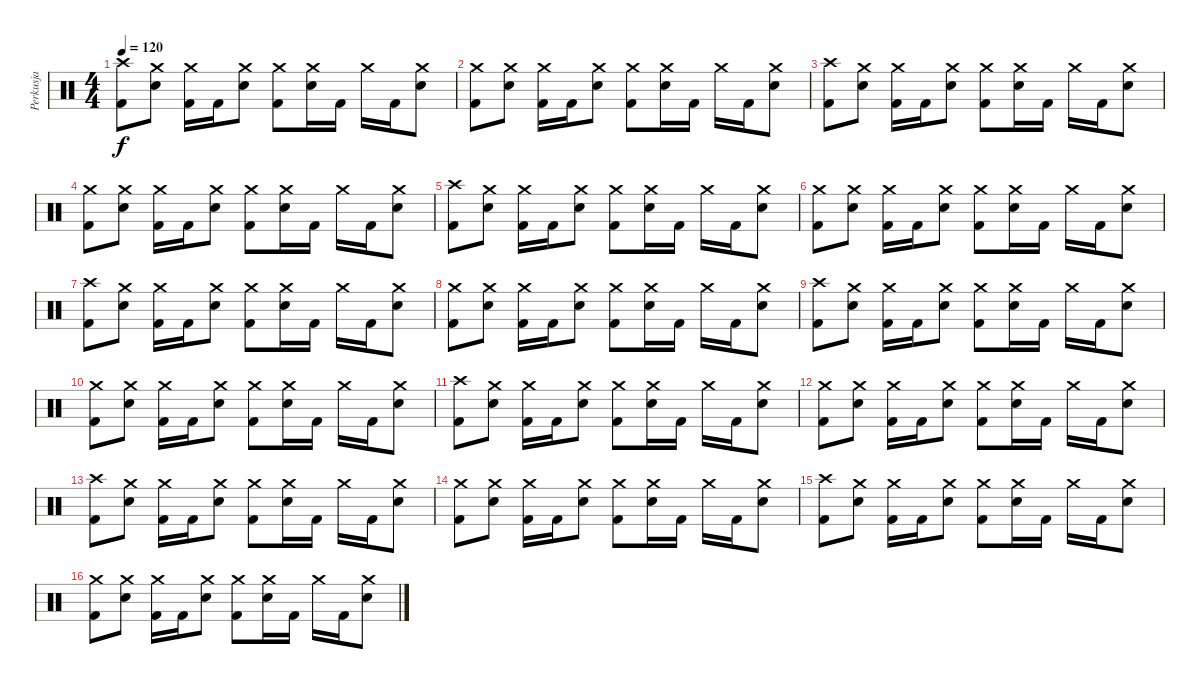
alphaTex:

\track ("Perkusja" "Perkusja") {instrument percussion}
\staff {score}
\articulation defaults
\ts (4 4)
\tempo 120
\clef neutral
\ks c
("Crash high (hit)" "Kick (hit) 2").8{dy f} ("Crash medium (hit)" "Snare (hit) 2").8 ("Crash medium (hit)" "Kick (hit) 2").16 "Kick (hit) 2".16 ("Crash medium (hit)" "Snare (hit) 2").8 ("Crash medium (hit)" "Kick (hit) 2").8 ("Crash medium (hit)" "Snare (hit) 2").16 "Kick (hit) 2".16 "Crash medium (hit)".16 "Kick (hit) 2".16 ("Crash medium (hit)" "Snare (hit) 2").8 |
("Crash medium (hit)" "Kick (hit) 2").8 ("Crash medium (hit)" "Snare (hit) 2").8 ("Crash medium (hit)" "Kick (hit) 2").16 "Kick (hit) 2".16 ("Crash medium (hit)" "Snare (hit) 2").8 ("Crash medium (hit)" "Kick (hit) 2").8 ("Crash medium (hit)" "Snare (hit) 2").16 "Kick (hit) 2".16 "Crash medium (hit)".16 "Kick (hit) 2".16 ("Crash medium (hit)" "Snare (hit) 2").8 |
("Crash high (hit)" "Kick (hit) 2").8 ("Crash medium (hit)" "Snare (hit) 2").8 ("Crash medium (hit)" "Kick (hit) 2").16 "Kick (hit) 2".16 ("Crash medium (hit)" "Snare (hit) 2").8 ("Crash medium (hit)" "Kick (hit) 2").8 ("Crash medium (hit)" "Snare (hit) 2").16 "Kick (hit) 2".16 "Crash medium (hit)".16 "Kick (hit) 2".16 ("Crash medium (hit)" "Snare (hit) 2").8 |
("Crash medium (hit)" "Kick (hit) 2").8 ("Crash medium (hit)" "Snare (hit) 2").8 ("Crash medium (hit)" "Kick (hit) 2").16 "Kick (hit) 2".16 ("Crash medium (hit)" "Snare (hit) 2").8 ("Crash medium (hit)" "Kick (hit) 2").8 ("Crash medium (hit)" "Snare (hit) 2").16 "Kick (hit) 2".16 "Crash medium (hit)".16 "Kick (hit) 2".16 ("Crash medium (hit)" "Snare (hit) 2").8 |
("Crash high (hit)" "Kick (hit) 2").8 ("Crash medium (hit)" "Snare (hit) 2").8 ("Crash medium (hit)" "Kick (hit) 2").16 "Kick (hit) 2".16 ("Crash medium (hit)" "Snare (hit) 2").8 ("Crash medium (hit)" "Kick (hit) 2").8 ("Crash medium (hit)" "Snare (hit) 2").16 "Kick (hit) 2".16 "Crash medium (hit)".16 "Kick (hit) 2".16 ("Crash medium (hit)" "Snare (hit) 2").8 |
("Crash medium (hit)" "Kick (hit) 2").8 ("Crash medium (hit)" "Snare (hit) 2").8 ("Crash medium (hit)" "Kick (hit) 2").16 "Kick (hit) 2".16 ("Crash medium (hit)" "Snare (hit) 2").8 ("Crash medium (hit)" "Kick (hit) 2").8 ("Crash medium (hit)" "Snare (hit) 2").16 "Kick (hit) 2".16 "Crash medium (hit)".16 "Kick (hit) 2".16 ("Crash medium (hit)" "Snare (hit) 2").8 |
("Crash high (hit)" "Kick (hit) 2").8 ("Crash medium (hit)" "Snare (hit) 2").8 ("Crash medium (hit)" "Kick (hit) 2").16 "Kick (hit) 2".16 ("Crash medium (hit)" "Snare (hit) 2").8 ("Crash medium (hit)" "Kick (hit) 2").8 ("Crash medium (hit)" "Snare (hit) 2").16 "Kick (hit) 2".16 "Crash medium (hit)".16 "Kick (hit) 2".16 ("Crash medium (hit)" "Snare (hit) 2").8 |
("Crash medium (hit)" "Kick (hit) 2").8 ("Crash medium (hit)" "Snare (hit) 2").8 ("Crash medium (hit)" "Kick (hit) 2").16 "Kick (hit) 2".16 ("Crash medium (hit)" "Snare (hit) 2").8 ("Crash medium (hit)" "Kick (hit) 2").8 ("Crash medium (hit)" "Snare (hit) 2").16 "Kick (hit) 2".16 "Crash medium (hit)".16 "Kick (hit) 2".16 ("Crash medium (hit)" "Snare (hit) 2").8 |
("Crash high (hit)" "Kick (hit) 2").8 ("Crash medium (hit)" "Snare (hit) 2").8 ("Crash medium (hit)" "Kick (hit) 2").16 "Kick (hit) 2".16 ("Crash medium (hit)" "Snare (hit) 2").8 ("Crash medium (hit)" "Kick (hit) 2").8 ("Crash medium (hit)" "Snare (hit) 2").16 "Kick (hit) 2".16 "Crash medium (hit)".16 "Kick (hit) 2".16 ("Crash medium (hit)" "Snare (hit) 2").8 |
("Crash medium (hit)" "Kick (hit) 2").8 ("Crash medium (hit)" "Snare (hit) 2").8 ("Crash medium (hit)" "Kick (hit) 2").16 "Kick (hit) 2".16 ("Crash medium (hit)" "Snare (hit) 2").8 ("Crash medium (hit)" "Kick (hit) 2").8 ("Crash medium (hit)" "Snare (hit) 2").16 "Kick (hit) 2".16 "Crash medium (hit)".16 "Kick (hit) 2".16 ("Crash medium (hit)" "Snare (hit) 2").8 |
("Crash high (hit)" "Kick (hit) 2").8 ("Crash medium (hit)" "Snare (hit) 2").8 ("Crash medium (hit)" "Kick (hit) 2").16 "Kick (hit) 2".16 ("Crash medium (hit)" "Snare (hit) 2").8 ("Crash medium (hit)" "Kick (hit) 2").8 ("Crash medium (hit)" "Snare (hit) 2").16 "Kick (hit) 2".16 "Crash medium (hit)".16 "Kick (hit) 2".16 ("Crash medium (hit)" "Snare (hit) 2").8 |
("Crash medium (hit)" "Kick (hit) 2").8 ("Crash medium (hit)" "Snare (hit) 2").8 ("Crash medium (hit)" "Kick (hit) 2").16 "Kick (hit) 2".16 ("Crash medium (hit)" "Snare (hit) 2").8 ("Crash medium (hit)" "Kick (hit) 2").8 ("Crash medium (hit)" "Snare (hit) 2").16 "Kick (hit) 2".16 "Crash medium (hit)".16 "Kick (hit) 2".16 ("Crash medium (hit)" "Snare (hit) 2").8 |
("Crash high (hit)" "Kick (hit) 2").8 ("Crash medium (hit)" "Snare (hit) 2").8 ("Crash medium (hit)" "Kick (hit) 2").16 "Kick (hit) 2".16 ("Crash medium (hit)" "Snare (hit) 2").8 ("Crash medium (hit)" "Kick (hit) 2").8 ("Crash medium (hit)" "Snare (hit) 2").16 "Kick (hit) 2".16 "Crash medium (hit)".16 "Kick (hit) 2".16 ("Crash medium (hit)" "Snare (hit) 2").8 |
("Crash medium (hit)" "Kick (hit) 2").8 ("Crash medium (hit)" "Snare (hit) 2").8 ("Crash medium (hit)" "Kick (hit) 2").16 "Kick (hit) 2".16 ("Crash medium (hit)" "Snare (hit) 2").8 ("Crash medium (hit)" "Kick (hit) 2").8 ("Crash medium (hit)" "Snare (hit) 2").16 "Kick (hit) 2".16 "Crash medium (hit)".16 "Kick (hit) 2".16 ("Crash medium (hit)" "Snare (hit) 2").8 |
("Crash high (hit)" "Kick (hit) 2").8 ("Crash medium (hit)" "Snare (hit) 2").8 ("Crash medium (hit)" "Kick (hit) 2").16 "Kick (hit) 2".16 ("Crash medium (hit)" "Snare (hit) 2").8 ("Crash medium (hit)" "Kick (hit) 2").8 ("Crash medium (hit)" "Snare (hit) 2").16 "Kick (hit) 2".16 "Crash medium (hit)".16 "Kick (hit) 2".16 ("Crash medium (hit)" "Snare (hit) 2").8 |
("Crash medium (hit)" "Kick (hit) 2").8 ("Crash medium (hit)" "Snare (hit) 2").8 ("Crash medium (hit)" "Kick (hit) 2").16 "Kick (hit) 2".16 ("Crash medium (hit)" "Snare (hit) 2").8 ("Crash medium (hit)" "Kick (hit) 2").8 ("Crash medium (hit)" "Snare (hit) 2").16 "Kick (hit) 2".16 "Crash medium (hit)".16 "Kick (hit) 2".16 ("Crash medium (hit)" "Snare (hit) 2").8
